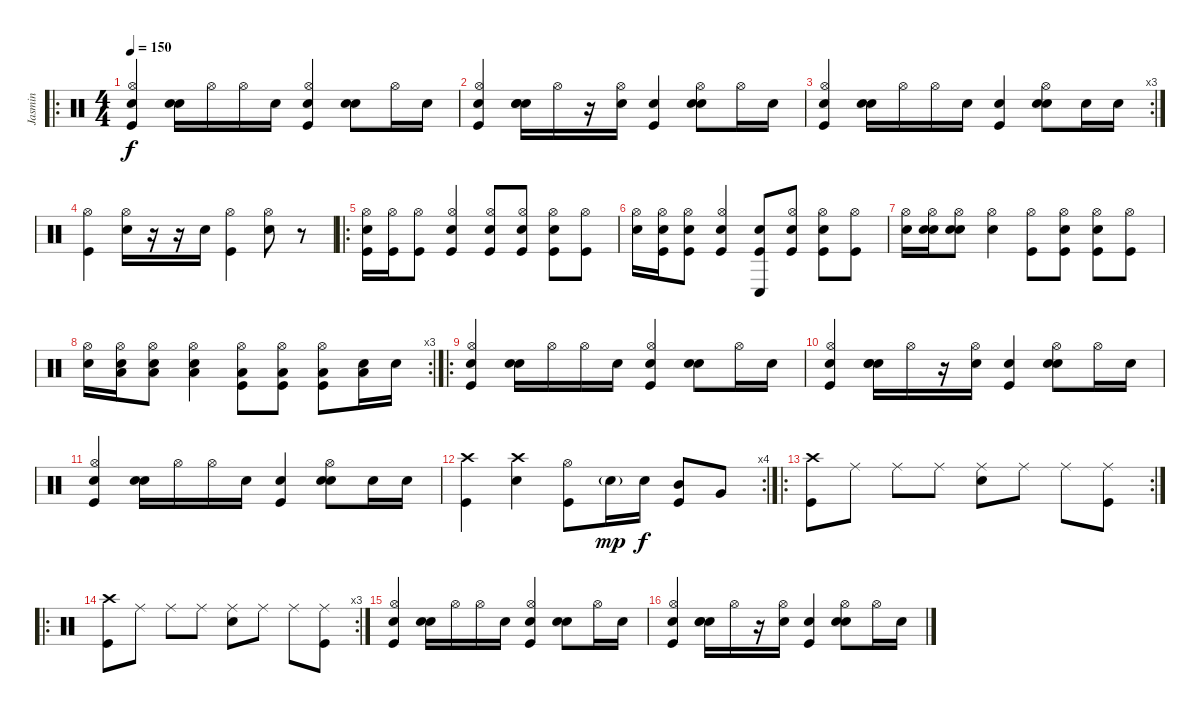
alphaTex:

\track ("Jasmin" "Jasmin") {instrument percussion}
\staff {score}
\articulation defaults
\ro
\ts (4 4)
\tempo 150
\clef neutral
\ks c
("Snare (hit) 2" "Hi-Hat (open)" "Kick (hit)").4{dy f} ("Snare (hit) 2" "Snare (hit) 2").16 "Hi-Hat (open)".16 "Hi-Hat (open)".16 "Snare (hit) 2".16 ("Snare (hit) 2" "Hi-Hat (open)" "Kick (hit)").4 ("Snare (hit) 2" "Snare (hit) 2").8 "Hi-Hat (open)".16 "Snare (hit) 2".16 |
("Snare (hit) 2" "Hi-Hat (open)" "Kick (hit)").4 ("Snare (hit) 2" "Snare (hit) 2" "Snare (hit) 2").16 "Hi-Hat (open)".16 r.16 ("Hi-Hat (open)" "Snare (hit) 2").16 ("Snare (hit) 2" "Kick (hit)").4 ("Snare (hit) 2" "Hi-Hat (open)" "Snare (hit) 2").8 "Hi-Hat (open)".16 "Snare (hit) 2".16 |
\rc 3
("Snare (hit) 2" "Hi-Hat (open)" "Kick (hit)").4 ("Snare (hit) 2" "Snare (hit) 2").16 "Hi-Hat (open)".16 "Hi-Hat (open)".16 "Snare (hit) 2".16 ("Snare (hit) 2" "Kick (hit)").4 ("Snare (hit) 2" "Hi-Hat (open)" "Snare (hit) 2").8 "Snare (hit) 2".16 "Snare (hit) 2".16 |
("Hi-Hat (open)" "Kick (hit)").4 ("Hi-Hat (open)" "Snare (hit) 2").16 r.16 r.16 "Snare (hit) 2".16 ("Hi-Hat (open)" "Kick (hit)").4 ("Hi-Hat (open)" "Snare (hit) 2").8 r.8 |
\ro
("Hi-Hat (open)" "Snare (hit) 2" "Kick (hit)").16 ("Hi-Hat (open)" "Kick (hit)").16 ("Hi-Hat (open)" "Kick (hit)").8 ("Hi-Hat (open)" "Snare (hit) 2" "Kick (hit)").4 ("Hi-Hat (open)" "Snare (hit) 2" "Kick (hit)").8 ("Hi-Hat (open)" "Snare (hit) 2" "Kick (hit)").8 ("Hi-Hat (open)" "Snare (hit) 2" "Kick (hit)").8 ("Hi-Hat (open)" "Kick (hit)").8 |
("Hi-Hat (open)" "Snare (hit) 2").16 ("Hi-Hat (open)" "Snare (hit) 2" "Kick (hit)").16 ("Hi-Hat (open)" "Snare (hit) 2" "Kick (hit)").8 ("Hi-Hat (open)" "Snare (hit) 2" "Kick (hit)").4 ("Conga low (hit)" "Snare (hit) 2" "Kick (hit)").8 ("Hi-Hat (open)" "Snare (hit) 2" "Kick (hit)").8 ("Hi-Hat (open)" "Snare (hit) 2" "Kick (hit)").8 ("Hi-Hat (open)" "Kick (hit)").8 |
("Hi-Hat (open)" "Snare (hit) 2").16 ("Hi-Hat (open)" "Snare (hit) 2" "Snare (hit) 2").16 ("Hi-Hat (open)" "Snare (hit) 2" "Snare (hit) 2").8 ("Hi-Hat (open)" "Snare (hit) 2").4 ("Hi-Hat (open)" "Kick (hit)").8 ("Hi-Hat (open)" "Snare (hit) 2" "Kick (hit)").8 ("Hi-Hat (open)" "Snare (hit) 2" "Kick (hit)").8 ("Hi-Hat (open)" "Kick (hit)").8 |
\rc 3
("Hi-Hat (open)" "Snare (hit) 2").16 ("Hi-Hat (open)" "Snare (hit) 2" "Low Tom (hit)").16 ("Hi-Hat (open)" "Snare (hit) 2" "Low Tom (hit)").8 ("Hi-Hat (open)" "Snare (hit) 2" "Low Tom (hit)").4 ("Hi-Hat (open)" "Low Tom (hit)" "Kick (hit)").8 ("Hi-Hat (open)" "Low Tom (hit)" "Kick (hit)").8 ("Hi-Hat (open)" "Low Tom (hit)" "Kick (hit)").8 ("Low Tom (hit)" "Snare (hit) 2").16 "Snare (hit) 2".16 |
\ro
("Snare (hit) 2" "Hi-Hat (open)" "Kick (hit)").4 ("Snare (hit) 2" "Snare (hit) 2").16 "Hi-Hat (open)".16 "Hi-Hat (open)".16 "Snare (hit) 2".16 ("Snare (hit) 2" "Hi-Hat (open)" "Kick (hit)").4 ("Snare (hit) 2" "Snare (hit) 2").8 "Hi-Hat (open)".16 "Snare (hit) 2".16 |
("Snare (hit) 2" "Hi-Hat (open)" "Kick (hit)").4 ("Snare (hit) 2" "Snare (hit) 2" "Snare (hit) 2").16 "Hi-Hat (open)".16 r.16 ("Hi-Hat (open)" "Snare (hit) 2").16 ("Snare (hit) 2" "Kick (hit)").4 ("Snare (hit) 2" "Hi-Hat (open)" "Snare (hit) 2").8 "Hi-Hat (open)".16 "Snare (hit) 2".16 |
("Snare (hit) 2" "Hi-Hat (open)" "Kick (hit)").4 ("Snare (hit) 2" "Snare (hit) 2").16 "Hi-Hat (open)".16 "Hi-Hat (open)".16 "Snare (hit) 2".16 ("Snare (hit) 2" "Kick (hit)").4 ("Snare (hit) 2" "Hi-Hat (open)" "Snare (hit) 2").8 "Snare (hit) 2".16 "Snare (hit) 2".16 |
\rc 4
("Crash high (hit)" "Kick (hit)").4 ("Crash high (hit)" "Snare (hit) 2").4 ("Hi-Hat (open)" "Kick (hit)").8 "Snare (hit) 2"{g}.16{dy mp} "Snare (hit) 2".16{dy f} ("Mid Tom (hit)" "Kick (hit)").8 "Very Low Tom (hit)".8 |
\ro
\rc 2
("Crash high (hit)" "Kick (hit)").8 "Ride (middle)".8 "Ride (middle)".8 "Ride (middle)".8 ("Ride (middle)" "Snare (hit) 2").8 "Ride (middle)".8 "Ride (middle)".8 ("Ride (middle)" "Kick (hit)").8 |
\ro
\rc 3
("Crash high (hit)" "Kick (hit)").8 "Ride (middle)".8 "Ride (middle)".8 "Ride (middle)".8 ("Ride (middle)" "Snare (hit) 2").8 "Ride (middle)".8 "Ride (middle)".8 ("Ride (middle)" "Kick (hit)").8 |
("Snare (hit) 2" "Hi-Hat (open)" "Kick (hit)").4 ("Snare (hit) 2" "Snare (hit) 2").16 "Hi-Hat (open)".16 "Hi-Hat (open)".16 "Snare (hit) 2".16 ("Snare (hit) 2" "Hi-Hat (open)" "Kick (hit)").4 ("Snare (hit) 2" "Snare (hit) 2").8 "Hi-Hat (open)".16 "Snare (hit) 2".16 |
("Snare (hit) 2" "Hi-Hat (open)" "Kick (hit)").4 ("Snare (hit) 2" "Snare (hit) 2" "Snare (hit) 2").16 "Hi-Hat (open)".16 r.16 ("Hi-Hat (open)" "Snare (hit) 2").16 ("Snare (hit) 2" "Kick (hit)").4 ("Snare (hit) 2" "Hi-Hat (open)" "Snare (hit) 2").8 "Hi-Hat (open)".16 "Snare (hit) 2".16
